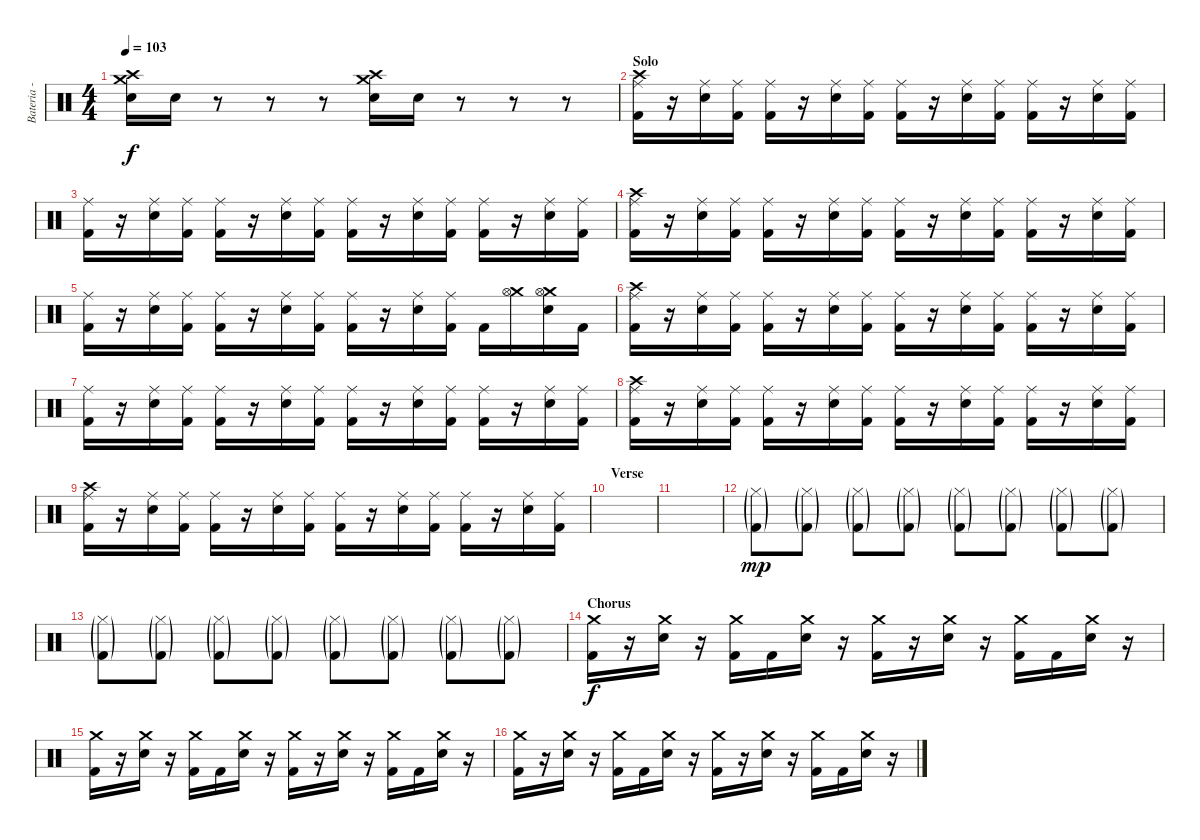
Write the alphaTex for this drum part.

\track ("Bateria - Larzon" "Bateria - ") {instrument percussion}
\staff {score}
\articulation defaults
\ts (4 4)
\tempo 103
\clef neutral
\ks c
("Crash high (hit)" "Crash medium (hit)" "Electric Snare (hit)").16{dy f} "Electric Snare (hit)".16 r.8 r.8 r.8 ("Crash high (hit)" "Crash medium (hit)" "Electric Snare (hit)").16 "Electric Snare (hit)".16 r.8 r.8 r.8 |
\section ("" "Solo")
("Kick (hit) 2" "Crash high (hit)" "Ride (middle)").16 r.16 ("Snare (hit) 2" "Ride (middle)").16 ("Kick (hit) 2" "Ride (middle)").16 ("Kick (hit) 2" "Ride (middle)").16 r.16 ("Snare (hit) 2" "Ride (middle)").16 ("Kick (hit) 2" "Ride (middle)").16 ("Kick (hit) 2" "Ride (middle)").16 r.16 ("Snare (hit) 2" "Ride (middle)").16 ("Kick (hit) 2" "Ride (middle)").16 ("Kick (hit) 2" "Ride (middle)").16 r.16 ("Snare (hit) 2" "Ride (middle)").16 ("Kick (hit) 2" "Ride (middle)").16 |
("Kick (hit) 2" "Ride (middle)").16 r.16 ("Snare (hit) 2" "Ride (middle)").16 ("Kick (hit) 2" "Ride (middle)").16 ("Kick (hit) 2" "Ride (middle)").16 r.16 ("Snare (hit) 2" "Ride (middle)").16 ("Kick (hit) 2" "Ride (middle)").16 ("Kick (hit) 2" "Ride (middle)").16 r.16 ("Snare (hit) 2" "Ride (middle)").16 ("Kick (hit) 2" "Ride (middle)").16 ("Kick (hit) 2" "Ride (middle)").16 r.16 ("Snare (hit) 2" "Ride (middle)").16 ("Kick (hit) 2" "Ride (middle)").16 |
("Kick (hit) 2" "Crash high (hit)" "Ride (middle)").16 r.16 ("Snare (hit) 2" "Ride (middle)").16 ("Kick (hit) 2" "Ride (middle)").16 ("Kick (hit) 2" "Ride (middle)").16 r.16 ("Snare (hit) 2" "Ride (middle)").16 ("Kick (hit) 2" "Ride (middle)").16 ("Kick (hit) 2" "Ride (middle)").16 r.16 ("Snare (hit) 2" "Ride (middle)").16 ("Kick (hit) 2" "Ride (middle)").16 ("Kick (hit) 2" "Ride (middle)").16 r.16 ("Snare (hit) 2" "Ride (middle)").16 ("Kick (hit) 2" "Ride (middle)").16 |
("Kick (hit) 2" "Ride (middle)").16 r.16 ("Snare (hit) 2" "Ride (middle)").16 ("Kick (hit) 2" "Ride (middle)").16 ("Kick (hit) 2" "Ride (middle)").16 r.16 ("Snare (hit) 2" "Ride (middle)").16 ("Kick (hit) 2" "Ride (middle)").16 ("Kick (hit) 2" "Ride (middle)").16 r.16 ("Snare (hit) 2" "Ride (middle)").16 ("Kick (hit) 2" "Ride (middle)").16 "Kick (hit) 2".16 ("Crash medium (hit)" "Hi-Hat (open)").16 ("Snare (hit) 2" "Crash medium (hit)" "Hi-Hat (open)").16 "Kick (hit) 2".16 |
("Kick (hit) 2" "Crash high (hit)" "Ride (middle)").16 r.16 ("Snare (hit) 2" "Ride (middle)").16 ("Kick (hit) 2" "Ride (middle)").16 ("Kick (hit) 2" "Ride (middle)").16 r.16 ("Snare (hit) 2" "Ride (middle)").16 ("Kick (hit) 2" "Ride (middle)").16 ("Kick (hit) 2" "Ride (middle)").16 r.16 ("Snare (hit) 2" "Ride (middle)").16 ("Kick (hit) 2" "Ride (middle)").16 ("Kick (hit) 2" "Ride (middle)").16 r.16 ("Snare (hit) 2" "Ride (middle)").16 ("Kick (hit) 2" "Ride (middle)").16 |
("Kick (hit) 2" "Ride (middle)").16 r.16 ("Snare (hit) 2" "Ride (middle)").16 ("Kick (hit) 2" "Ride (middle)").16 ("Kick (hit) 2" "Ride (middle)").16 r.16 ("Snare (hit) 2" "Ride (middle)").16 ("Kick (hit) 2" "Ride (middle)").16 ("Kick (hit) 2" "Ride (middle)").16 r.16 ("Snare (hit) 2" "Ride (middle)").16 ("Kick (hit) 2" "Ride (middle)").16 ("Kick (hit) 2" "Ride (middle)").16 r.16 ("Snare (hit) 2" "Ride (middle)").16 ("Kick (hit) 2" "Ride (middle)").16 |
("Kick (hit) 2" "Crash high (hit)" "Ride (middle)").16 r.16 ("Snare (hit) 2" "Ride (middle)").16 ("Kick (hit) 2" "Ride (middle)").16 ("Kick (hit) 2" "Ride (middle)").16 r.16 ("Snare (hit) 2" "Ride (middle)").16 ("Kick (hit) 2" "Ride (middle)").16 ("Kick (hit) 2" "Ride (middle)").16 r.16 ("Snare (hit) 2" "Ride (middle)").16 ("Kick (hit) 2" "Ride (middle)").16 ("Kick (hit) 2" "Ride (middle)").16 r.16 ("Snare (hit) 2" "Ride (middle)").16 ("Kick (hit) 2" "Ride (middle)").16 |
("Kick (hit) 2" "Crash high (hit)" "Ride (middle)").16 r.16 ("Snare (hit) 2" "Ride (middle)").16 ("Kick (hit) 2" "Ride (middle)").16 ("Kick (hit) 2" "Ride (middle)").16 r.16 ("Snare (hit) 2" "Ride (middle)").16 ("Kick (hit) 2" "Ride (middle)").16 ("Kick (hit) 2" "Ride (middle)").16 r.16 ("Snare (hit) 2" "Ride (middle)").16 ("Kick (hit) 2" "Ride (middle)").16 ("Kick (hit) 2" "Ride (middle)").16 r.16 ("Snare (hit) 2" "Ride (middle)").16 ("Kick (hit) 2" "Ride (middle)").16 |
\section ("" "Verse")
|
|
("Kick (hit) 2"{g} "Hi-Hat (closed)"{g}).8{dy mp} ("Kick (hit) 2"{g} "Hi-Hat (closed)"{g}).8 ("Kick (hit) 2"{g} "Hi-Hat (closed)"{g}).8 ("Kick (hit) 2"{g} "Hi-Hat (closed)"{g}).8 ("Kick (hit) 2"{g} "Hi-Hat (closed)"{g}).8 ("Kick (hit) 2"{g} "Hi-Hat (closed)"{g}).8 ("Kick (hit) 2"{g} "Hi-Hat (closed)"{g}).8 ("Kick (hit) 2"{g} "Hi-Hat (closed)"{g}).8 |
("Kick (hit) 2"{g} "Hi-Hat (closed)"{g}).8 ("Kick (hit) 2"{g} "Hi-Hat (closed)"{g}).8 ("Kick (hit) 2"{g} "Hi-Hat (closed)"{g}).8 ("Kick (hit) 2"{g} "Hi-Hat (closed)"{g}).8 ("Kick (hit) 2"{g} "Hi-Hat (closed)"{g}).8 ("Kick (hit) 2"{g} "Hi-Hat (closed)"{g}).8 ("Kick (hit) 2"{g} "Hi-Hat (closed)"{g}).8 ("Kick (hit) 2"{g} "Hi-Hat (closed)"{g}).8 |
\section ("" "Chorus")
("Kick (hit) 2" "Crash medium (hit)").16{dy f} r.16 ("Snare (hit) 2" "Crash medium (hit)").16 r.16 ("Kick (hit) 2" "Crash medium (hit)").16 "Kick (hit) 2".16 ("Snare (hit) 2" "Crash medium (hit)").16 r.16 ("Kick (hit) 2" "Crash medium (hit)").16 r.16 ("Snare (hit) 2" "Crash medium (hit)").16 r.16 ("Kick (hit) 2" "Crash medium (hit)").16 "Kick (hit) 2".16 ("Snare (hit) 2" "Crash medium (hit)").16 r.16 |
("Kick (hit) 2" "Crash medium (hit)").16 r.16 ("Snare (hit) 2" "Crash medium (hit)").16 r.16 ("Kick (hit) 2" "Crash medium (hit)").16 "Kick (hit) 2".16 ("Snare (hit) 2" "Crash medium (hit)").16 r.16 ("Kick (hit) 2" "Crash medium (hit)").16 r.16 ("Snare (hit) 2" "Crash medium (hit)").16 r.16 ("Kick (hit) 2" "Crash medium (hit)").16 "Kick (hit) 2".16 ("Snare (hit) 2" "Crash medium (hit)").16 r.16 |
("Kick (hit) 2" "Crash medium (hit)").16 r.16 ("Snare (hit) 2" "Crash medium (hit)").16 r.16 ("Kick (hit) 2" "Crash medium (hit)").16 "Kick (hit) 2".16 ("Snare (hit) 2" "Crash medium (hit)").16 r.16 ("Kick (hit) 2" "Crash medium (hit)").16 r.16 ("Snare (hit) 2" "Crash medium (hit)").16 r.16 ("Kick (hit) 2" "Crash medium (hit)").16 "Kick (hit) 2".16 ("Snare (hit) 2" "Crash medium (hit)").16 r.16
